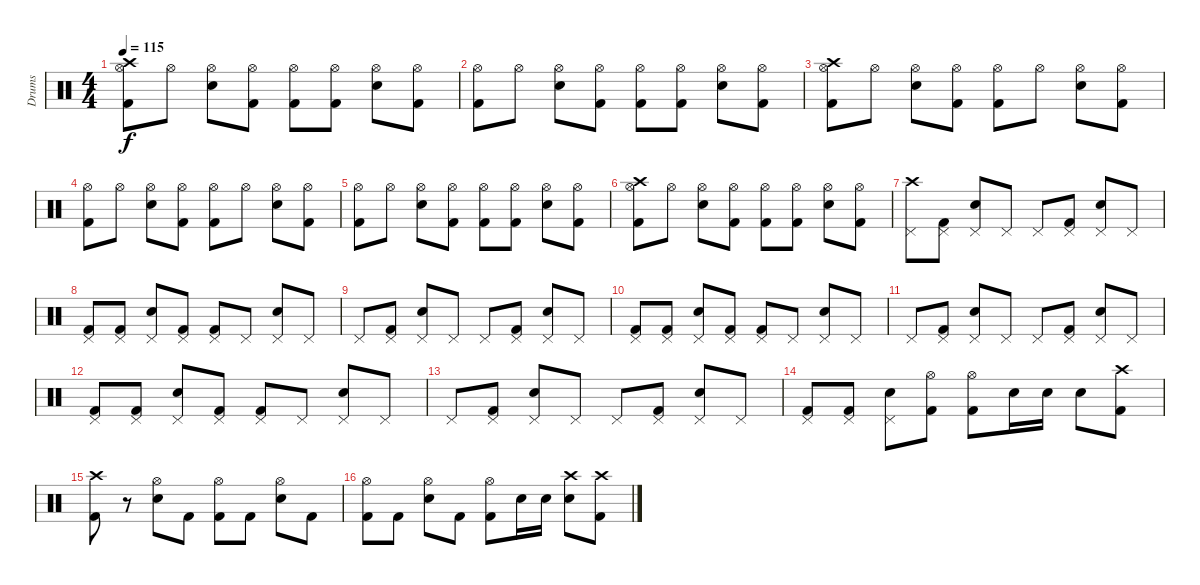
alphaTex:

\track ("Drums" "Drums") {instrument percussion}
\staff {score}
\articulation defaults
\ts (4 4)
\tempo 115
\clef neutral
\ks c
("Crash high (hit)" "Hi-Hat (open)" "Kick (hit) 2").8{dy f} "Hi-Hat (open)".8 ("Hi-Hat (open)" "Snare (hit) 2").8 ("Hi-Hat (open)" "Kick (hit) 2").8 ("Hi-Hat (open)" "Kick (hit) 2").8 ("Hi-Hat (open)" "Kick (hit) 2").8 ("Hi-Hat (open)" "Snare (hit) 2").8 ("Hi-Hat (open)" "Kick (hit) 2").8 |
("Hi-Hat (open)" "Kick (hit) 2").8 "Hi-Hat (open)".8 ("Hi-Hat (open)" "Snare (hit) 2").8 ("Hi-Hat (open)" "Kick (hit) 2").8 ("Hi-Hat (open)" "Kick (hit) 2").8 ("Hi-Hat (open)" "Kick (hit) 2").8 ("Hi-Hat (open)" "Snare (hit) 2").8 ("Hi-Hat (open)" "Kick (hit) 2").8 |
("Crash high (hit)" "Hi-Hat (open)" "Kick (hit) 2").8 "Hi-Hat (open)".8 ("Hi-Hat (open)" "Snare (hit) 2").8 ("Hi-Hat (open)" "Kick (hit) 2").8 ("Hi-Hat (open)" "Kick (hit) 2").8 "Hi-Hat (open)".8 ("Hi-Hat (open)" "Snare (hit) 2").8 ("Hi-Hat (open)" "Kick (hit) 2").8 |
("Hi-Hat (open)" "Kick (hit) 2").8 "Hi-Hat (open)".8 ("Hi-Hat (open)" "Snare (hit) 2").8 ("Hi-Hat (open)" "Kick (hit) 2").8 ("Hi-Hat (open)" "Kick (hit) 2").8 "Hi-Hat (open)".8 ("Hi-Hat (open)" "Snare (hit) 2").8 ("Hi-Hat (open)" "Kick (hit) 2").8 |
("Hi-Hat (open)" "Kick (hit) 2").8 "Hi-Hat (open)".8 ("Hi-Hat (open)" "Snare (hit) 2").8 ("Hi-Hat (open)" "Kick (hit) 2").8 ("Hi-Hat (open)" "Kick (hit) 2").8 ("Hi-Hat (open)" "Kick (hit) 2").8 ("Hi-Hat (open)" "Snare (hit) 2").8 ("Hi-Hat (open)" "Kick (hit) 2").8 |
("Crash high (hit)" "Hi-Hat (open)" "Kick (hit) 2").8 "Hi-Hat (open)".8 ("Hi-Hat (open)" "Snare (hit) 2").8 ("Hi-Hat (open)" "Kick (hit) 2").8 ("Hi-Hat (open)" "Kick (hit) 2").8 ("Hi-Hat (open)" "Kick (hit) 2").8 ("Hi-Hat (open)" "Snare (hit) 2").8 ("Hi-Hat (open)" "Kick (hit) 2").8 |
("Crash high (hit)" "Pedal Hi-Hat (hit)").8 ("Pedal Hi-Hat (hit)" "Kick (hit) 2").8 ("Pedal Hi-Hat (hit)" "Snare (hit) 2").8 "Pedal Hi-Hat (hit)".8 "Pedal Hi-Hat (hit)".8 ("Pedal Hi-Hat (hit)" "Kick (hit) 2").8 ("Pedal Hi-Hat (hit)" "Snare (hit) 2").8 "Pedal Hi-Hat (hit)".8 |
("Pedal Hi-Hat (hit)" "Kick (hit) 2").8 ("Pedal Hi-Hat (hit)" "Kick (hit) 2").8 ("Pedal Hi-Hat (hit)" "Snare (hit) 2").8 ("Pedal Hi-Hat (hit)" "Kick (hit) 2").8 ("Pedal Hi-Hat (hit)" "Kick (hit) 2").8 "Pedal Hi-Hat (hit)".8 ("Pedal Hi-Hat (hit)" "Snare (hit) 2").8 "Pedal Hi-Hat (hit)".8 |
"Pedal Hi-Hat (hit)".8 ("Pedal Hi-Hat (hit)" "Kick (hit) 2").8 ("Pedal Hi-Hat (hit)" "Snare (hit) 2").8 "Pedal Hi-Hat (hit)".8 "Pedal Hi-Hat (hit)".8 ("Pedal Hi-Hat (hit)" "Kick (hit) 2").8 ("Pedal Hi-Hat (hit)" "Snare (hit) 2").8 "Pedal Hi-Hat (hit)".8 |
("Pedal Hi-Hat (hit)" "Kick (hit) 2").8 ("Pedal Hi-Hat (hit)" "Kick (hit) 2").8 ("Pedal Hi-Hat (hit)" "Snare (hit) 2").8 ("Pedal Hi-Hat (hit)" "Kick (hit) 2").8 ("Pedal Hi-Hat (hit)" "Kick (hit) 2").8 "Pedal Hi-Hat (hit)".8 ("Pedal Hi-Hat (hit)" "Snare (hit) 2").8 "Pedal Hi-Hat (hit)".8 |
"Pedal Hi-Hat (hit)".8 ("Pedal Hi-Hat (hit)" "Kick (hit) 2").8 ("Pedal Hi-Hat (hit)" "Snare (hit) 2").8 "Pedal Hi-Hat (hit)".8 "Pedal Hi-Hat (hit)".8 ("Pedal Hi-Hat (hit)" "Kick (hit) 2").8 ("Pedal Hi-Hat (hit)" "Snare (hit) 2").8 "Pedal Hi-Hat (hit)".8 |
("Pedal Hi-Hat (hit)" "Kick (hit) 2").8 ("Pedal Hi-Hat (hit)" "Kick (hit) 2").8 ("Pedal Hi-Hat (hit)" "Snare (hit) 2").8 ("Pedal Hi-Hat (hit)" "Kick (hit) 2").8 ("Pedal Hi-Hat (hit)" "Kick (hit) 2").8 "Pedal Hi-Hat (hit)".8 ("Pedal Hi-Hat (hit)" "Snare (hit) 2").8 "Pedal Hi-Hat (hit)".8 |
"Pedal Hi-Hat (hit)".8 ("Pedal Hi-Hat (hit)" "Kick (hit) 2").8 ("Pedal Hi-Hat (hit)" "Snare (hit) 2").8 "Pedal Hi-Hat (hit)".8 "Pedal Hi-Hat (hit)".8 ("Pedal Hi-Hat (hit)" "Kick (hit) 2").8 ("Pedal Hi-Hat (hit)" "Snare (hit) 2").8 "Pedal Hi-Hat (hit)".8 |
("Pedal Hi-Hat (hit)" "Kick (hit) 2").8 ("Pedal Hi-Hat (hit)" "Kick (hit) 2").8 ("Pedal Hi-Hat (hit)" "Snare (hit) 2").8 ("Hi-Hat (open)" "Kick (hit) 2").8 ("Hi-Hat (open)" "Kick (hit) 2").8 "Snare (hit) 2".16 "Snare (hit) 2".16 "Snare (hit) 2".8 ("Crash high (hit)" "Kick (hit) 2").8 |
("Crash high (hit)" "Kick (hit) 2").8 r.8 ("Hi-Hat (open)" "Snare (hit) 2").8 "Kick (hit) 2".8 ("Hi-Hat (open)" "Kick (hit) 2").8 "Kick (hit) 2".8 ("Hi-Hat (open)" "Snare (hit) 2").8 "Kick (hit) 2".8 |
("Hi-Hat (open)" "Kick (hit) 2").8 "Kick (hit) 2".8 ("Hi-Hat (open)" "Snare (hit) 2").8 "Kick (hit) 2".8 ("Hi-Hat (open)" "Kick (hit) 2").8 "Snare (hit) 2".16 "Snare (hit) 2".16 ("Crash high (hit)" "Snare (hit) 2").8 ("Crash high (hit)" "Kick (hit) 2").8
